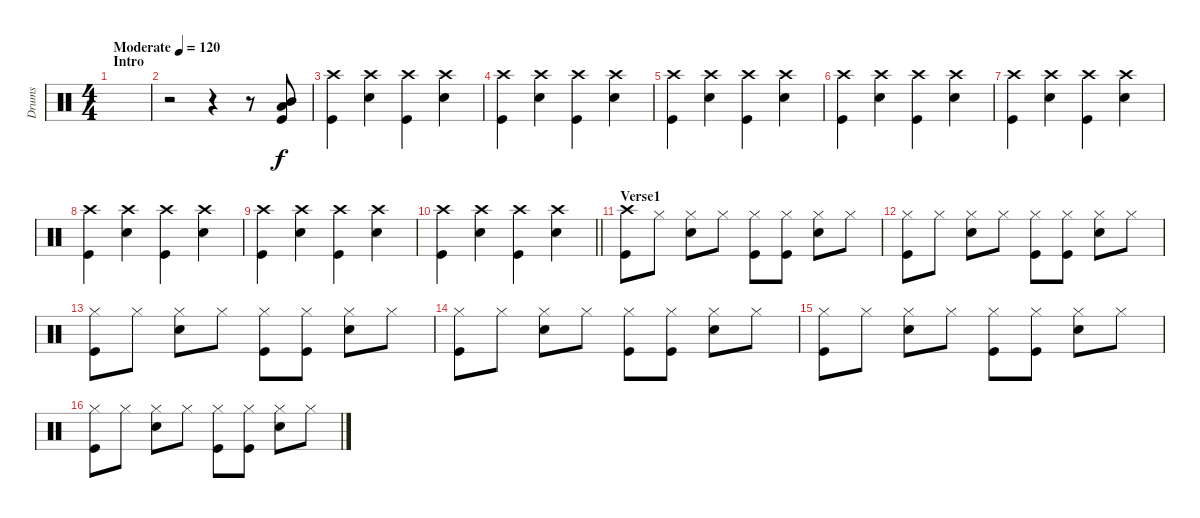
\track ("Drums" "Drums") {instrument percussion}
\staff {score}
\articulation defaults
\ts (4 4)
\section ("" "Intro")
\tempo (120 "Moderate")
\clef neutral
\ks c
|
r.2 r.4 r.8 ("Mid Tom (hit)" "Low Floor Tom (hit)" "Kick (hit)").8 |
("Crash high (hit)" "Kick (hit)").4 ("Crash high (hit)" "Snare (hit) 2").4 ("Crash high (hit)" "Kick (hit)").4 ("Crash high (hit)" "Snare (hit) 2").4 |
("Crash high (hit)" "Kick (hit)").4 ("Crash high (hit)" "Snare (hit) 2").4 ("Crash high (hit)" "Kick (hit)").4 ("Crash high (hit)" "Snare (hit) 2").4 |
("Crash high (hit)" "Kick (hit)").4 ("Crash high (hit)" "Snare (hit) 2").4 ("Crash high (hit)" "Kick (hit)").4 ("Crash high (hit)" "Snare (hit) 2").4 |
("Crash high (hit)" "Kick (hit)").4 ("Crash high (hit)" "Snare (hit) 2").4 ("Crash high (hit)" "Kick (hit)").4 ("Crash high (hit)" "Snare (hit) 2").4 |
("Crash high (hit)" "Kick (hit)").4 ("Crash high (hit)" "Snare (hit) 2").4 ("Crash high (hit)" "Kick (hit)").4 ("Crash high (hit)" "Snare (hit) 2").4 |
("Crash high (hit)" "Kick (hit)").4 ("Crash high (hit)" "Snare (hit) 2").4 ("Crash high (hit)" "Kick (hit)").4 ("Crash high (hit)" "Snare (hit) 2").4 |
("Crash high (hit)" "Kick (hit)").4 ("Crash high (hit)" "Snare (hit) 2").4 ("Crash high (hit)" "Kick (hit)").4 ("Crash high (hit)" "Snare (hit) 2").4 |
\barLineRight lightlight
("Crash high (hit)" "Kick (hit)").4 ("Crash high (hit)" "Snare (hit) 2").4 ("Crash high (hit)" "Kick (hit)").4 ("Crash high (hit)" "Snare (hit) 2").4 |
\section ("" "Verse1")
("Crash high (hit)" "Kick (hit)").8 "Hi-Hat (closed)".8 ("Hi-Hat (closed)" "Snare (hit) 2").8 "Hi-Hat (closed)".8 ("Hi-Hat (closed)" "Kick (hit)").8 ("Hi-Hat (closed)" "Kick (hit)").8 ("Hi-Hat (closed)" "Snare (hit) 2").8 "Hi-Hat (closed)".8 |
("Hi-Hat (closed)" "Kick (hit)").8 "Hi-Hat (closed)".8 ("Hi-Hat (closed)" "Snare (hit) 2").8 "Hi-Hat (closed)".8 ("Hi-Hat (closed)" "Kick (hit)").8 ("Hi-Hat (closed)" "Kick (hit)").8 ("Hi-Hat (closed)" "Snare (hit) 2").8 "Hi-Hat (closed)".8 |
("Hi-Hat (closed)" "Kick (hit)").8 "Hi-Hat (closed)".8 ("Hi-Hat (closed)" "Snare (hit) 2").8 "Hi-Hat (closed)".8 ("Hi-Hat (closed)" "Kick (hit)").8 ("Hi-Hat (closed)" "Kick (hit)").8 ("Hi-Hat (closed)" "Snare (hit) 2").8 "Hi-Hat (closed)".8 |
("Hi-Hat (closed)" "Kick (hit)").8 "Hi-Hat (closed)".8 ("Hi-Hat (closed)" "Snare (hit) 2").8 "Hi-Hat (closed)".8 ("Hi-Hat (closed)" "Kick (hit)").8 ("Hi-Hat (closed)" "Kick (hit)").8 ("Hi-Hat (closed)" "Snare (hit) 2").8 "Hi-Hat (closed)".8 |
("Hi-Hat (closed)" "Kick (hit)").8 "Hi-Hat (closed)".8 ("Hi-Hat (closed)" "Snare (hit) 2").8 "Hi-Hat (closed)".8 ("Hi-Hat (closed)" "Kick (hit)").8 ("Hi-Hat (closed)" "Kick (hit)").8 ("Hi-Hat (closed)" "Snare (hit) 2").8 "Hi-Hat (closed)".8 |
("Hi-Hat (closed)" "Kick (hit)").8 "Hi-Hat (closed)".8 ("Hi-Hat (closed)" "Snare (hit) 2").8 "Hi-Hat (closed)".8 ("Hi-Hat (closed)" "Kick (hit)").8 ("Hi-Hat (closed)" "Kick (hit)").8 ("Hi-Hat (closed)" "Snare (hit) 2").8 "Hi-Hat (closed)".8
